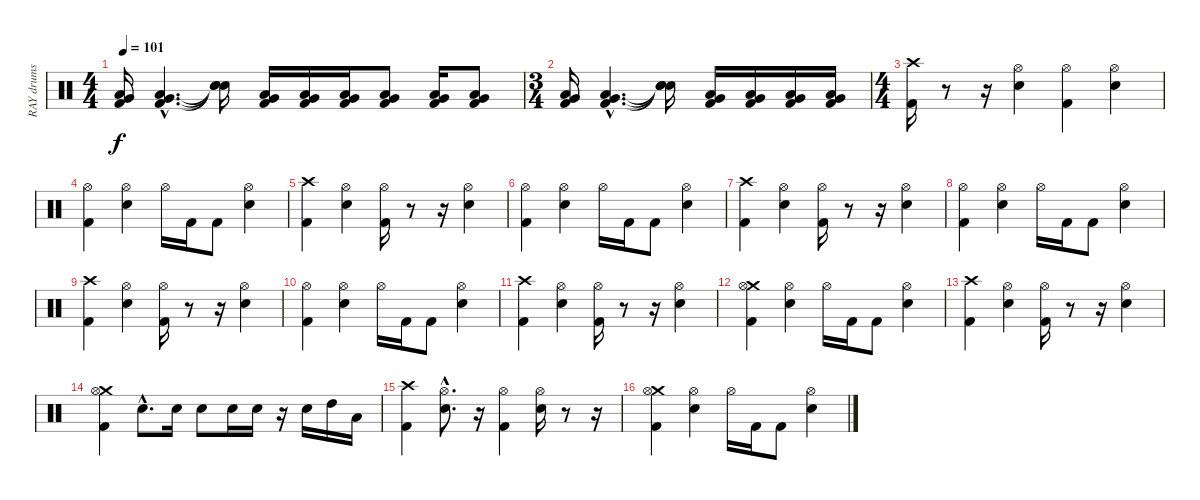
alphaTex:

\track ("RAY drums" "RAY drums") {instrument percussion}
\staff {score}
\articulation defaults
\ts (4 4)
\tempo 101
\clef neutral
\ks c
("Kick (hit) 2" "Very Low Tom (hit)" "Low Tom (hit)").16{dy f} ("Kick (hit) 2"{hac} "Very Low Tom (hit)"{hac} "Low Tom (hit)"{hac}).4{d} ("Snare (hit)"{t} "Snare (hit)"{t} "Snare (hit)"{t}).16 ("Kick (hit) 2" "Very Low Tom (hit)" "Low Tom (hit)").16 ("Kick (hit) 2" "Very Low Tom (hit)" "Low Tom (hit)").16 ("Kick (hit) 2" "Very Low Tom (hit)" "Low Tom (hit)").16 ("Kick (hit) 2" "Very Low Tom (hit)" "Low Tom (hit)").8 ("Kick (hit) 2" "Very Low Tom (hit)" "Low Tom (hit)").16 ("Kick (hit) 2" "Very Low Tom (hit)" "Low Tom (hit)").8 |
\ts (3 4)
("Kick (hit) 2" "Very Low Tom (hit)" "Low Tom (hit)").16 ("Kick (hit) 2"{hac} "Very Low Tom (hit)"{hac} "Low Tom (hit)"{hac}).4{d} ("Snare (hit)"{t} "Snare (hit)"{t} "Snare (hit)"{t}).16 ("Kick (hit) 2" "Very Low Tom (hit)" "Low Tom (hit)").16 ("Kick (hit) 2" "Very Low Tom (hit)" "Low Tom (hit)").16 ("Kick (hit) 2" "Very Low Tom (hit)" "Low Tom (hit)").16 ("Kick (hit) 2" "Very Low Tom (hit)" "Low Tom (hit)").16 |
\ts (4 4)
("Crash high (hit)" "Kick (hit) 2").16 r.8 r.16 ("Hi-Hat (open)" "Electric Snare (hit)").4 ("Hi-Hat (open)" "Kick (hit) 2").4 ("Hi-Hat (open)" "Electric Snare (hit)").4 |
("Hi-Hat (open)" "Kick (hit) 2").4 ("Hi-Hat (open)" "Electric Snare (hit)").4 "Hi-Hat (open)".16 "Kick (hit) 2".16 "Kick (hit) 2".8 ("Hi-Hat (open)" "Electric Snare (hit)").4 |
("Kick (hit) 2" "Crash high (hit)").4 ("Electric Snare (hit)" "Hi-Hat (open)").4 ("Kick (hit) 2" "Hi-Hat (open)").16 r.8 r.16 ("Electric Snare (hit)" "Hi-Hat (open)").4 |
("Kick (hit) 2" "Hi-Hat (open)").4 ("Electric Snare (hit)" "Hi-Hat (open)").4 "Hi-Hat (open)".16 "Kick (hit) 2".16 "Kick (hit) 2".8 ("Electric Snare (hit)" "Hi-Hat (open)").4 |
("Crash high (hit)" "Kick (hit) 2").4 ("Hi-Hat (open)" "Electric Snare (hit)").4 ("Hi-Hat (open)" "Kick (hit) 2").16 r.8 r.16 ("Hi-Hat (open)" "Electric Snare (hit)").4 |
("Hi-Hat (open)" "Kick (hit) 2").4 ("Hi-Hat (open)" "Electric Snare (hit)").4 "Hi-Hat (open)".16 "Kick (hit) 2".16 "Kick (hit) 2".8 ("Hi-Hat (open)" "Electric Snare (hit)").4 |
("Kick (hit) 2" "Crash high (hit)").4 ("Electric Snare (hit)" "Hi-Hat (open)").4 ("Kick (hit) 2" "Hi-Hat (open)").16 r.8 r.16 ("Electric Snare (hit)" "Hi-Hat (open)").4 |
("Kick (hit) 2" "Hi-Hat (open)").4 ("Electric Snare (hit)" "Hi-Hat (open)").4 "Hi-Hat (open)".16 "Kick (hit) 2".16 "Kick (hit) 2".8 ("Electric Snare (hit)" "Hi-Hat (open)").4 |
("Crash high (hit)" "Kick (hit) 2").4 ("Hi-Hat (open)" "Electric Snare (hit)").4 ("Hi-Hat (open)" "Kick (hit) 2").16 r.8 r.16 ("Hi-Hat (open)" "Electric Snare (hit)").4 |
("Crash medium (hit)" "Hi-Hat (open)" "Kick (hit) 2").4 ("Hi-Hat (open)" "Electric Snare (hit)").4 "Hi-Hat (open)".16 "Kick (hit) 2".16 "Kick (hit) 2".8 ("Hi-Hat (open)" "Electric Snare (hit)").4 |
("Kick (hit) 2" "Crash high (hit)").4 ("Electric Snare (hit)" "Hi-Hat (open)").4 ("Kick (hit) 2" "Hi-Hat (open)").16 r.8 r.16 ("Electric Snare (hit)" "Hi-Hat (open)").4 |
("Crash medium (hit)" "Kick (hit) 2" "Hi-Hat (open)").4 "Electric Snare (hit)"{hac}.8{d} "Electric Snare (hit)".16 "Electric Snare (hit)".8 "Electric Snare (hit)".16 "Electric Snare (hit)".16 r.16 "Electric Snare (hit)".16 "High Tom (hit)".16 "Low Tom (hit)".16 |
("Crash high (hit)" "Kick (hit) 2").4 ("Hi-Hat (open)"{hac} "Electric Snare (hit)"{hac}).8{d} r.16 ("Hi-Hat (open)" "Kick (hit) 2").4 ("Hi-Hat (open)" "Electric Snare (hit)").16 r.8 r.16 |
("Crash medium (hit)" "Hi-Hat (open)" "Kick (hit) 2").4 ("Hi-Hat (open)" "Electric Snare (hit)").4 "Hi-Hat (open)".16 "Kick (hit) 2".16 "Kick (hit) 2".8 ("Hi-Hat (open)" "Electric Snare (hit)").4
